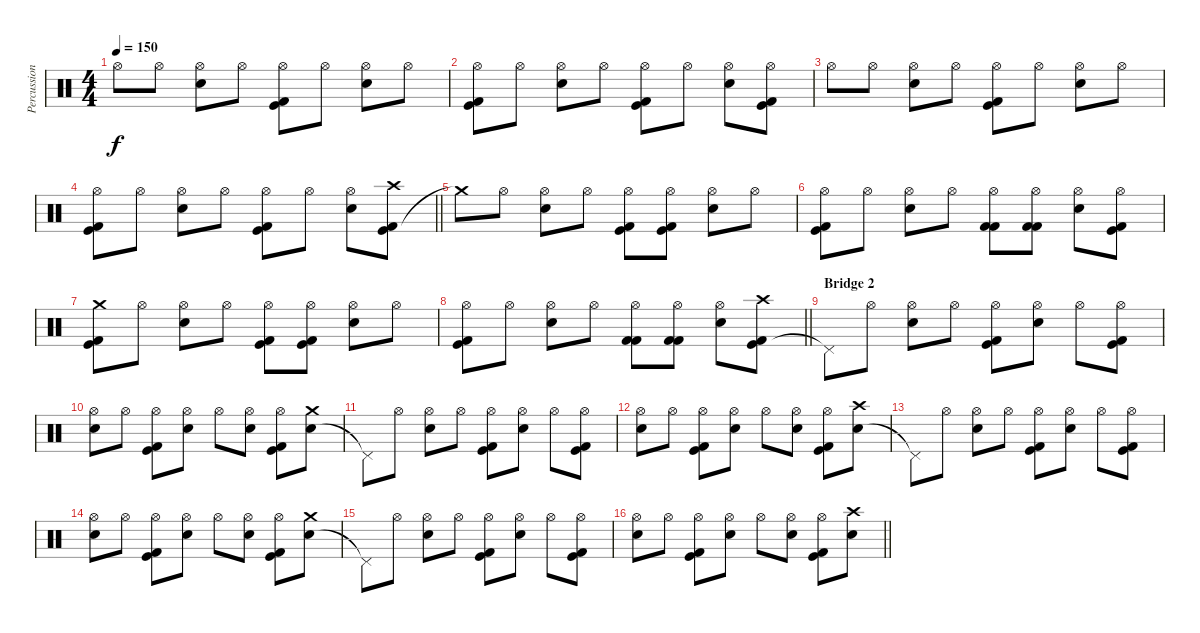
\track ("Percussion" "Percussion") {instrument percussion}
\staff {score}
\articulation defaults
\ts (4 4)
\tempo 150
\clef neutral
\ks c "Hi-Hat (open)".8{dy f} "Hi-Hat (open)".8
("Electric Snare (hit)" "Hi-Hat (open)").8 "Hi-Hat (open)".8 ("Kick (hit)" "Kick (hit) 2" "Hi-Hat (open)").8 "Hi-Hat (open)".8 ("Electric Snare (hit)" "Hi-Hat (open)").8 "Hi-Hat (open)".8 |
("Kick (hit)" "Kick (hit) 2" "Hi-Hat (open)").8 "Hi-Hat (open)".8 ("Electric Snare (hit)" "Hi-Hat (open)").8 "Hi-Hat (open)".8 ("Kick (hit)" "Kick (hit) 2" "Hi-Hat (open)").8 "Hi-Hat (open)".8 ("Electric Snare (hit)" "Hi-Hat (open)").8 ("Kick (hit)" "Kick (hit) 2" "Hi-Hat (open)").8 |
"Hi-Hat (open)".8 "Hi-Hat (open)".8 ("Electric Snare (hit)" "Hi-Hat (open)").8 "Hi-Hat (open)".8 ("Kick (hit)" "Kick (hit) 2" "Hi-Hat (open)").8 "Hi-Hat (open)".8 ("Electric Snare (hit)" "Hi-Hat (open)").8 "Hi-Hat (open)".8 |
\barLineRight lightlight
("Kick (hit)" "Kick (hit) 2" "Hi-Hat (open)").8 "Hi-Hat (open)".8 ("Electric Snare (hit)" "Hi-Hat (open)").8 "Hi-Hat (open)".8 ("Kick (hit)" "Kick (hit) 2" "Hi-Hat (open)").8 "Hi-Hat (open)".8 ("Electric Snare (hit)" "Hi-Hat (open)").8 ("Kick (hit)" "Kick (hit) 2" "Crash high (hit)").8 |
\section ("" "")
"Crash medium (hit)"{t}.8 "Hi-Hat (open)".8 ("Electric Snare (hit)" "Hi-Hat (open)").8 "Hi-Hat (open)".8 ("Kick (hit)" "Kick (hit) 2" "Hi-Hat (open)").8 ("Kick (hit)" "Kick (hit) 2" "Hi-Hat (open)").8 ("Electric Snare (hit)" "Hi-Hat (open)").8 "Hi-Hat (open)".8 |
("Kick (hit)" "Kick (hit) 2" "Hi-Hat (open)").8 "Hi-Hat (open)".8 ("Electric Snare (hit)" "Hi-Hat (open)").8 "Hi-Hat (open)".8 ("Kick (hit) 2" "Kick (hit) 2" "Hi-Hat (open)").8 ("Kick (hit) 2" "Kick (hit) 2" "Hi-Hat (open)").8 ("Electric Snare (hit)" "Hi-Hat (open)").8 ("Kick (hit)" "Kick (hit) 2" "Hi-Hat (open)").8 |
("Kick (hit)" "Kick (hit) 2" "Crash medium (hit)").8 "Hi-Hat (open)".8 ("Electric Snare (hit)" "Hi-Hat (open)").8 "Hi-Hat (open)".8 ("Kick (hit)" "Kick (hit) 2" "Hi-Hat (open)").8 ("Kick (hit)" "Kick (hit) 2" "Hi-Hat (open)").8 ("Electric Snare (hit)" "Hi-Hat (open)").8 "Hi-Hat (open)".8 |
\barLineRight lightlight
("Kick (hit)" "Kick (hit) 2" "Hi-Hat (open)").8 "Hi-Hat (open)".8 ("Electric Snare (hit)" "Hi-Hat (open)").8 "Hi-Hat (open)".8 ("Kick (hit) 2" "Kick (hit) 2" "Hi-Hat (open)").8 ("Kick (hit) 2" "Kick (hit) 2" "Hi-Hat (open)").8 ("Electric Snare (hit)" "Hi-Hat (open)").8 ("Kick (hit)" "Kick (hit) 2" "Crash high (hit)").8 |
\section ("" "Bridge 2")
"Pedal Hi-Hat (hit)"{t}.8 "Hi-Hat (open)".8 ("Electric Snare (hit)" "Hi-Hat (open)").8 "Hi-Hat (open)".8 ("Kick (hit)" "Kick (hit) 2" "Hi-Hat (open)").8 ("Electric Snare (hit)" "Hi-Hat (open)").8 "Hi-Hat (open)".8 ("Kick (hit)" "Kick (hit) 2" "Hi-Hat (open)").8 |
("Electric Snare (hit)" "Hi-Hat (open)").8 "Hi-Hat (open)".8 ("Kick (hit)" "Kick (hit) 2" "Hi-Hat (open)").8 ("Electric Snare (hit)" "Hi-Hat (open)").8 "Hi-Hat (open)".8 ("Electric Snare (hit)" "Hi-Hat (open)").8 ("Kick (hit)" "Kick (hit) 2" "Hi-Hat (open)").8 ("Electric Snare (hit)" "Crash medium (hit)").8 |
"Pedal Hi-Hat (hit)"{t}.8 "Hi-Hat (open)".8 ("Electric Snare (hit)" "Hi-Hat (open)").8 "Hi-Hat (open)".8 ("Kick (hit)" "Kick (hit) 2" "Hi-Hat (open)").8 ("Electric Snare (hit)" "Hi-Hat (open)").8 "Hi-Hat (open)".8 ("Kick (hit)" "Kick (hit) 2" "Hi-Hat (open)").8 |
("Electric Snare (hit)" "Hi-Hat (open)").8 "Hi-Hat (open)".8 ("Kick (hit)" "Kick (hit) 2" "Hi-Hat (open)").8 ("Electric Snare (hit)" "Hi-Hat (open)").8 "Hi-Hat (open)".8 ("Electric Snare (hit)" "Hi-Hat (open)").8 ("Kick (hit)" "Kick (hit) 2" "Hi-Hat (open)").8 ("Electric Snare (hit)" "Crash high (hit)").8 |
"Pedal Hi-Hat (hit)"{t}.8 "Hi-Hat (open)".8 ("Electric Snare (hit)" "Hi-Hat (open)").8 "Hi-Hat (open)".8 ("Kick (hit)" "Kick (hit) 2" "Hi-Hat (open)").8 ("Electric Snare (hit)" "Hi-Hat (open)").8 "Hi-Hat (open)".8 ("Kick (hit)" "Kick (hit) 2" "Hi-Hat (open)").8 |
("Electric Snare (hit)" "Hi-Hat (open)").8 "Hi-Hat (open)".8 ("Kick (hit)" "Kick (hit) 2" "Hi-Hat (open)").8 ("Electric Snare (hit)" "Hi-Hat (open)").8 "Hi-Hat (open)".8 ("Electric Snare (hit)" "Hi-Hat (open)").8 ("Kick (hit)" "Kick (hit) 2" "Hi-Hat (open)").8 ("Electric Snare (hit)" "Crash medium (hit)").8 |
"Pedal Hi-Hat (hit)"{t}.8 "Hi-Hat (open)".8 ("Electric Snare (hit)" "Hi-Hat (open)").8 "Hi-Hat (open)".8 ("Kick (hit)" "Kick (hit) 2" "Hi-Hat (open)").8 ("Electric Snare (hit)" "Hi-Hat (open)").8 "Hi-Hat (open)".8 ("Kick (hit)" "Kick (hit) 2" "Hi-Hat (open)").8 |
\barLineRight lightlight
("Electric Snare (hit)" "Hi-Hat (open)").8 "Hi-Hat (open)".8 ("Kick (hit)" "Kick (hit) 2" "Hi-Hat (open)").8 ("Electric Snare (hit)" "Hi-Hat (open)").8 "Hi-Hat (open)".8 ("Electric Snare (hit)" "Hi-Hat (open)").8 ("Kick (hit)" "Kick (hit) 2" "Hi-Hat (open)").8 ("Electric Snare (hit)" "Crash high (hit)").8
